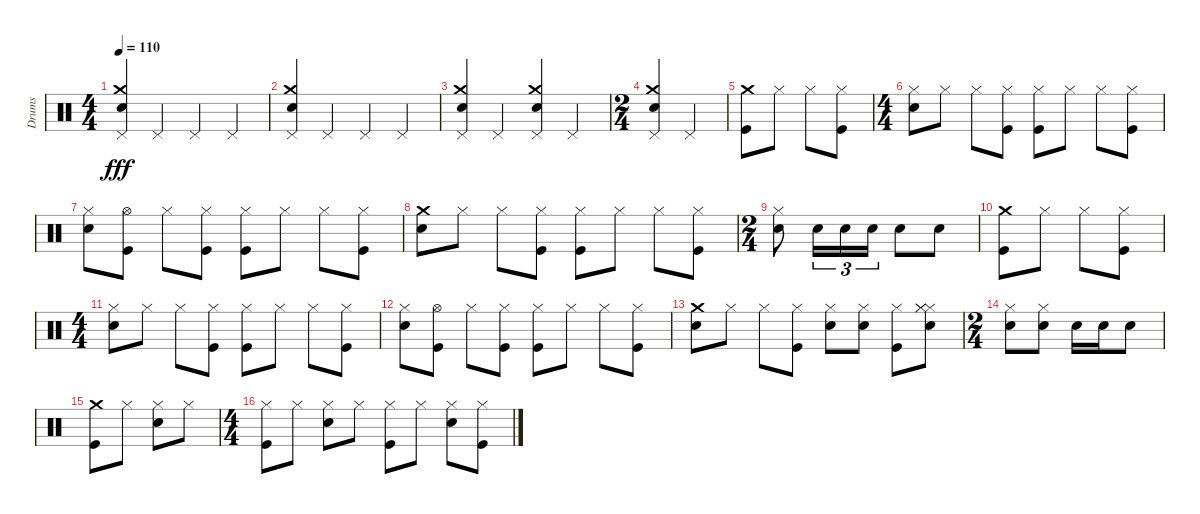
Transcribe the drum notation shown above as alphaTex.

\track ("Drums" "Drums") {instrument percussion}
\staff {score}
\articulation defaults
\ts (4 4)
\tempo 110
\clef neutral
\ks c
("Pedal Hi-Hat (hit)" "Crash medium (hit)" "Snare (hit) 2").4{dy fff} "Pedal Hi-Hat (hit)".4 "Pedal Hi-Hat (hit)".4 "Pedal Hi-Hat (hit)".4 |
("Pedal Hi-Hat (hit)" "Crash medium (hit)" "Snare (hit) 2").4 "Pedal Hi-Hat (hit)".4 "Pedal Hi-Hat (hit)".4 "Pedal Hi-Hat (hit)".4 |
("Crash medium (hit)" "Snare (hit) 2" "Pedal Hi-Hat (hit)").4 "Pedal Hi-Hat (hit)".4 ("Pedal Hi-Hat (hit)" "Snare (hit) 2" "Crash medium (hit)").4 "Pedal Hi-Hat (hit)".4 |
\ts (2 4)
("Crash medium (hit)" "Pedal Hi-Hat (hit)" "Snare (hit) 2").4 "Pedal Hi-Hat (hit)".4 |
("Kick (hit)" "Crash medium (hit)").8 "Hi-Hat (closed)".8 "Hi-Hat (closed)".8 ("Kick (hit)" "Hi-Hat (closed)").8 |
\ts (4 4)
("Snare (hit) 2" "Hi-Hat (closed)").8 "Hi-Hat (closed)".8 "Hi-Hat (closed)".8 ("Hi-Hat (closed)" "Kick (hit)").8 ("Hi-Hat (closed)" "Kick (hit)").8 "Hi-Hat (closed)".8 "Hi-Hat (closed)".8 ("Kick (hit)" "Hi-Hat (closed)").8 |
("Snare (hit) 2" "Hi-Hat (closed)").8 ("Kick (hit)" "Hi-Hat (open)").8 "Hi-Hat (closed)".8 ("Kick (hit)" "Hi-Hat (closed)").8 ("Hi-Hat (closed)" "Kick (hit)").8 "Hi-Hat (closed)".8 "Hi-Hat (closed)".8 ("Kick (hit)" "Hi-Hat (closed)").8 |
("Snare (hit) 2" "Crash medium (hit)").8 "Hi-Hat (closed)".8 "Hi-Hat (closed)".8 ("Kick (hit)" "Hi-Hat (closed)").8 ("Kick (hit)" "Hi-Hat (closed)").8 "Hi-Hat (closed)".8 "Hi-Hat (closed)".8 ("Kick (hit)" "Hi-Hat (closed)").8 |
\ts (2 4)
("Snare (hit) 2" "Hi-Hat (closed)").8 "Snare (hit) 2".16{tu (3 2)} "Snare (hit) 2".16{tu (3 2)} "Snare (hit) 2".16{tu (3 2)} "Snare (hit) 2".8 "Snare (hit) 2".8 |
("Crash medium (hit)" "Kick (hit)").8 "Hi-Hat (closed)".8 "Hi-Hat (closed)".8 ("Kick (hit)" "Hi-Hat (closed)").8 |
\ts (4 4)
("Snare (hit) 2" "Hi-Hat (closed)").8 "Hi-Hat (closed)".8 "Hi-Hat (closed)".8 ("Kick (hit)" "Hi-Hat (closed)").8 ("Hi-Hat (closed)" "Kick (hit)").8 "Hi-Hat (closed)".8 "Hi-Hat (closed)".8 ("Kick (hit)" "Hi-Hat (closed)").8 |
("Snare (hit) 2" "Hi-Hat (closed)").8 ("Kick (hit)" "Hi-Hat (open)").8 "Hi-Hat (closed)".8 ("Kick (hit)" "Hi-Hat (closed)").8 ("Hi-Hat (closed)" "Kick (hit)").8 "Hi-Hat (closed)".8 "Hi-Hat (closed)".8 ("Kick (hit)" "Hi-Hat (closed)").8 |
("Snare (hit) 2" "Crash medium (hit)").8 "Hi-Hat (closed)".8 "Hi-Hat (closed)".8 ("Kick (hit)" "Hi-Hat (closed)").8 ("Snare (hit) 2" "Hi-Hat (closed)").8 ("Snare (hit) 2" "Hi-Hat (closed)").8 ("Hi-Hat (closed)" "Kick (hit)").8 ("Hi-Hat (closed)" "Snare (hit) 2" "Hi-Hat (closed)" "Hi-Hat (closed)").8 |
\ts (2 4)
("Snare (hit) 2" "Hi-Hat (closed)").8 ("Snare (hit) 2" "Hi-Hat (closed)").8 "Snare (hit) 2".16 "Snare (hit) 2".16 "Snare (hit) 2".8 |
("Kick (hit)" "Crash medium (hit)").8 "Hi-Hat (closed)".8 ("Snare (hit) 2" "Hi-Hat (closed)").8 "Hi-Hat (closed)".8 |
\ts (4 4)
("Kick (hit)" "Hi-Hat (closed)").8 "Hi-Hat (closed)".8 ("Snare (hit) 2" "Hi-Hat (closed)").8 "Hi-Hat (closed)".8 ("Hi-Hat (closed)" "Kick (hit)").8 "Hi-Hat (closed)".8 ("Snare (hit) 2" "Hi-Hat (closed)").8 ("Kick (hit)" "Hi-Hat (closed)").8
